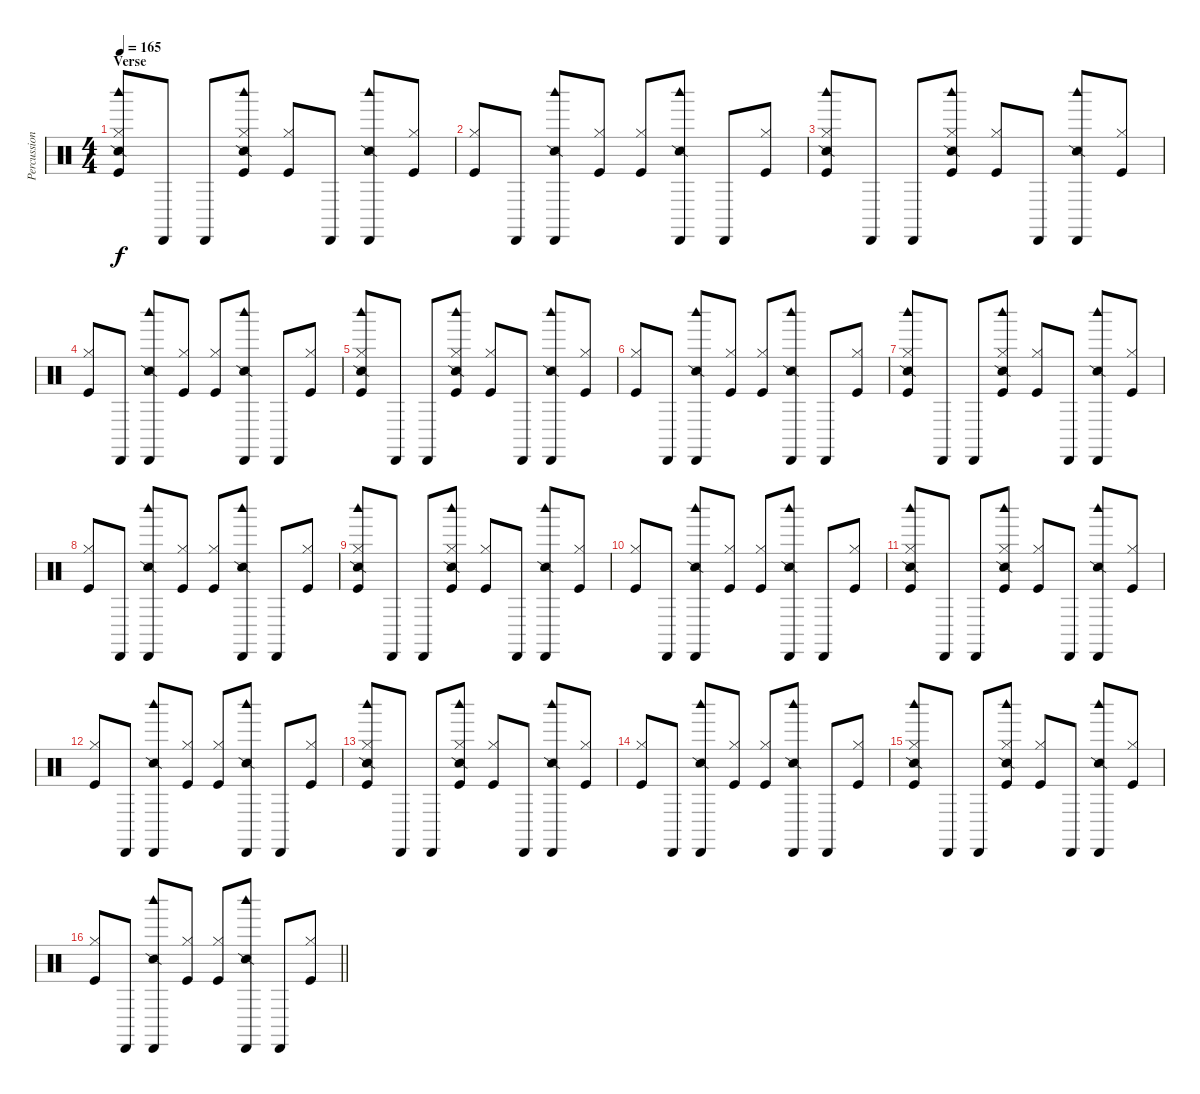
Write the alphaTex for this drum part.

\track ("Percussion" "Percussion") {instrument percussion}
\staff {score}
\articulation defaults
\ts (4 4)
\section ("" "Verse")
\tempo 165
\clef neutral
\ks c
("Snare (side stick) 2" "Hi-Hat (closed)" "Woodblock high (hit)" "Kick (hit)").8{dy f} "Cabasa (hit)".8 "Cabasa (hit)".8 ("Snare (side stick) 2" "Hi-Hat (closed)" "Woodblock high (hit)" "Kick (hit)").8 ("Hi-Hat (closed)" "Kick (hit)").8 "Cabasa (hit)".8 ("Snare (side stick) 2" "Cabasa (hit)" "Woodblock high (hit)").8 ("Hi-Hat (closed)" "Kick (hit)").8 |
("Hi-Hat (closed)" "Kick (hit)").8 "Cabasa (hit)".8 ("Snare (side stick) 2" "Cabasa (hit)" "Woodblock high (hit)").8 ("Hi-Hat (closed)" "Kick (hit)").8 ("Hi-Hat (closed)" "Kick (hit)").8 ("Snare (side stick) 2" "Cabasa (hit)" "Woodblock high (hit)").8 "Cabasa (hit)".8 ("Hi-Hat (closed)" "Kick (hit)").8 |
("Snare (side stick) 2" "Hi-Hat (closed)" "Woodblock high (hit)" "Kick (hit)").8 "Cabasa (hit)".8 "Cabasa (hit)".8 ("Snare (side stick) 2" "Hi-Hat (closed)" "Woodblock high (hit)" "Kick (hit)").8 ("Hi-Hat (closed)" "Kick (hit)").8 "Cabasa (hit)".8 ("Snare (side stick) 2" "Cabasa (hit)" "Woodblock high (hit)").8 ("Hi-Hat (closed)" "Kick (hit)").8 |
("Hi-Hat (closed)" "Kick (hit)").8 "Cabasa (hit)".8 ("Snare (side stick) 2" "Cabasa (hit)" "Woodblock high (hit)").8 ("Hi-Hat (closed)" "Kick (hit)").8 ("Hi-Hat (closed)" "Kick (hit)").8 ("Snare (side stick) 2" "Cabasa (hit)" "Woodblock high (hit)").8 "Cabasa (hit)".8 ("Hi-Hat (closed)" "Kick (hit)").8 |
("Snare (side stick) 2" "Hi-Hat (closed)" "Woodblock high (hit)" "Kick (hit)").8 "Cabasa (hit)".8 "Cabasa (hit)".8 ("Snare (side stick) 2" "Hi-Hat (closed)" "Woodblock high (hit)" "Kick (hit)").8 ("Hi-Hat (closed)" "Kick (hit)").8 "Cabasa (hit)".8 ("Snare (side stick) 2" "Cabasa (hit)" "Woodblock high (hit)").8 ("Hi-Hat (closed)" "Kick (hit)").8 |
("Hi-Hat (closed)" "Kick (hit)").8 "Cabasa (hit)".8 ("Snare (side stick) 2" "Cabasa (hit)" "Woodblock high (hit)").8 ("Hi-Hat (closed)" "Kick (hit)").8 ("Hi-Hat (closed)" "Kick (hit)").8 ("Snare (side stick) 2" "Cabasa (hit)" "Woodblock high (hit)").8 "Cabasa (hit)".8 ("Hi-Hat (closed)" "Kick (hit)").8 |
("Snare (side stick) 2" "Hi-Hat (closed)" "Woodblock high (hit)" "Kick (hit)").8 "Cabasa (hit)".8 "Cabasa (hit)".8 ("Snare (side stick) 2" "Hi-Hat (closed)" "Woodblock high (hit)" "Kick (hit)").8 ("Hi-Hat (closed)" "Kick (hit)").8 "Cabasa (hit)".8 ("Snare (side stick) 2" "Cabasa (hit)" "Woodblock high (hit)").8 ("Hi-Hat (closed)" "Kick (hit)").8 |
("Hi-Hat (closed)" "Kick (hit)").8 "Cabasa (hit)".8 ("Snare (side stick) 2" "Cabasa (hit)" "Woodblock high (hit)").8 ("Hi-Hat (closed)" "Kick (hit)").8 ("Hi-Hat (closed)" "Kick (hit)").8 ("Snare (side stick) 2" "Cabasa (hit)" "Woodblock high (hit)").8 "Cabasa (hit)".8 ("Hi-Hat (closed)" "Kick (hit)").8 |
("Snare (side stick) 2" "Hi-Hat (closed)" "Woodblock high (hit)" "Kick (hit)").8 "Cabasa (hit)".8 "Cabasa (hit)".8 ("Snare (side stick) 2" "Hi-Hat (closed)" "Woodblock high (hit)" "Kick (hit)").8 ("Hi-Hat (closed)" "Kick (hit)").8 "Cabasa (hit)".8 ("Snare (side stick) 2" "Cabasa (hit)" "Woodblock high (hit)").8 ("Hi-Hat (closed)" "Kick (hit)").8 |
("Hi-Hat (closed)" "Kick (hit)").8 "Cabasa (hit)".8 ("Snare (side stick) 2" "Cabasa (hit)" "Woodblock high (hit)").8 ("Hi-Hat (closed)" "Kick (hit)").8 ("Hi-Hat (closed)" "Kick (hit)").8 ("Snare (side stick) 2" "Cabasa (hit)" "Woodblock high (hit)").8 "Cabasa (hit)".8 ("Hi-Hat (closed)" "Kick (hit)").8 |
("Snare (side stick) 2" "Hi-Hat (closed)" "Woodblock high (hit)" "Kick (hit)").8 "Cabasa (hit)".8 "Cabasa (hit)".8 ("Snare (side stick) 2" "Hi-Hat (closed)" "Woodblock high (hit)" "Kick (hit)").8 ("Hi-Hat (closed)" "Kick (hit)").8 "Cabasa (hit)".8 ("Snare (side stick) 2" "Cabasa (hit)" "Woodblock high (hit)").8 ("Hi-Hat (closed)" "Kick (hit)").8 |
("Hi-Hat (closed)" "Kick (hit)").8 "Cabasa (hit)".8 ("Snare (side stick) 2" "Cabasa (hit)" "Woodblock high (hit)").8 ("Hi-Hat (closed)" "Kick (hit)").8 ("Hi-Hat (closed)" "Kick (hit)").8 ("Snare (side stick) 2" "Cabasa (hit)" "Woodblock high (hit)").8 "Cabasa (hit)".8 ("Hi-Hat (closed)" "Kick (hit)").8 |
("Snare (side stick) 2" "Hi-Hat (closed)" "Woodblock high (hit)" "Kick (hit)").8 "Cabasa (hit)".8 "Cabasa (hit)".8 ("Snare (side stick) 2" "Hi-Hat (closed)" "Woodblock high (hit)" "Kick (hit)").8 ("Hi-Hat (closed)" "Kick (hit)").8 "Cabasa (hit)".8 ("Snare (side stick) 2" "Cabasa (hit)" "Woodblock high (hit)").8 ("Hi-Hat (closed)" "Kick (hit)").8 |
("Hi-Hat (closed)" "Kick (hit)").8 "Cabasa (hit)".8 ("Snare (side stick) 2" "Cabasa (hit)" "Woodblock high (hit)").8 ("Hi-Hat (closed)" "Kick (hit)").8 ("Hi-Hat (closed)" "Kick (hit)").8 ("Snare (side stick) 2" "Cabasa (hit)" "Woodblock high (hit)").8 "Cabasa (hit)".8 ("Hi-Hat (closed)" "Kick (hit)").8 |
("Snare (side stick) 2" "Hi-Hat (closed)" "Woodblock high (hit)" "Kick (hit)").8 "Cabasa (hit)".8 "Cabasa (hit)".8 ("Snare (side stick) 2" "Hi-Hat (closed)" "Woodblock high (hit)" "Kick (hit)").8 ("Hi-Hat (closed)" "Kick (hit)").8 "Cabasa (hit)".8 ("Snare (side stick) 2" "Cabasa (hit)" "Woodblock high (hit)").8 ("Hi-Hat (closed)" "Kick (hit)").8 |
\barLineRight lightlight
("Hi-Hat (closed)" "Kick (hit)").8 "Cabasa (hit)".8 ("Snare (side stick) 2" "Cabasa (hit)" "Woodblock high (hit)").8 ("Hi-Hat (closed)" "Kick (hit)").8 ("Hi-Hat (closed)" "Kick (hit)").8 ("Snare (side stick) 2" "Cabasa (hit)" "Woodblock high (hit)").8 "Cabasa (hit)".8 ("Hi-Hat (closed)" "Kick (hit)").8
